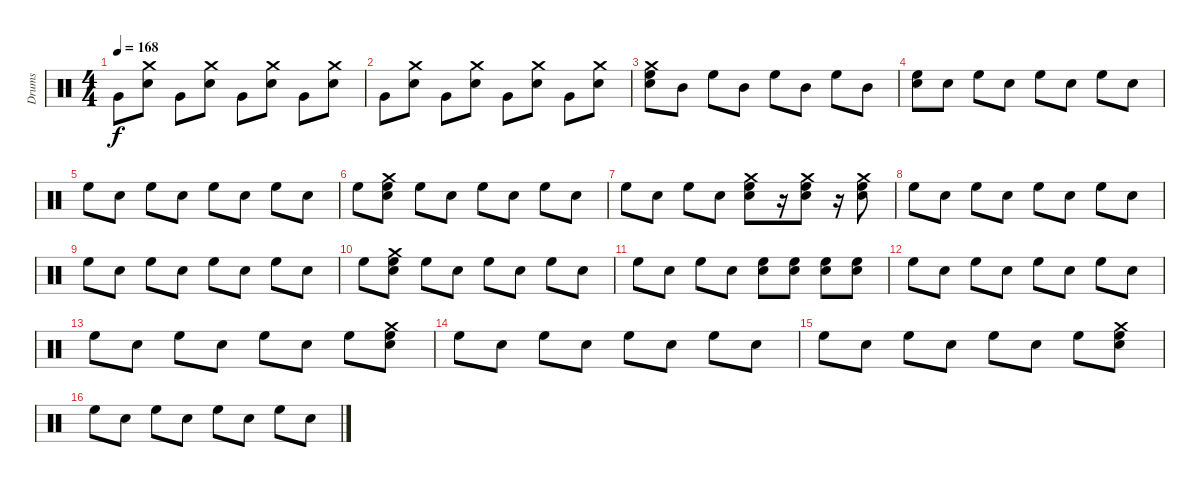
\track ("Drums" "Drums") {instrument percussion}
\staff {score}
\articulation defaults
\ts (4 4)
\tempo 168
\clef neutral
\ks c "Very Low Tom (hit)".8{dy f}
("Crash medium (hit)" "Electric Snare (hit)").8 "Very Low Tom (hit)".8 ("Crash medium (hit)" "Electric Snare (hit)").8 "Very Low Tom (hit)".8 ("Crash medium (hit)" "Electric Snare (hit)").8 "Very Low Tom (hit)".8 ("Crash medium (hit)" "Electric Snare (hit)").8 |
"Very Low Tom (hit)".8 ("Electric Snare (hit)" "Crash medium (hit)").8 "Very Low Tom (hit)".8 ("Electric Snare (hit)" "Crash medium (hit)").8 "Very Low Tom (hit)".8 ("Electric Snare (hit)" "Crash medium (hit)").8 "Very Low Tom (hit)".8 ("Electric Snare (hit)" "Crash medium (hit)").8 |
("Electric Snare (hit)" "Crash medium (hit)" "High Floor Tom (hit)").8 "Mid Tom (hit)".8 "High Floor Tom (hit)".8 "Mid Tom (hit)".8 "High Floor Tom (hit)".8 "Mid Tom (hit)".8 "High Floor Tom (hit)".8 "Mid Tom (hit)".8 |
("Electric Snare (hit)" "High Floor Tom (hit)").8 "Electric Snare (hit)".8 "High Floor Tom (hit)".8 "Electric Snare (hit)".8 "High Floor Tom (hit)".8 "Electric Snare (hit)".8 "High Floor Tom (hit)".8 "Electric Snare (hit)".8 |
"High Floor Tom (hit)".8 "Electric Snare (hit)".8 "High Floor Tom (hit)".8 "Electric Snare (hit)".8 "High Floor Tom (hit)".8 "Electric Snare (hit)".8 "High Floor Tom (hit)".8 "Electric Snare (hit)".8 |
"High Floor Tom (hit)".8 ("High Floor Tom (hit)" "Crash medium (hit)" "Electric Snare (hit)").8 "High Floor Tom (hit)".8 "Electric Snare (hit)".8 "High Floor Tom (hit)".8 "Electric Snare (hit)".8 "High Floor Tom (hit)".8 "Electric Snare (hit)".8 |
"High Floor Tom (hit)".8 "Electric Snare (hit)".8 "High Floor Tom (hit)".8 "Electric Snare (hit)".8 ("Electric Snare (hit)" "High Floor Tom (hit)" "Crash medium (hit)").8 r.16 ("Electric Snare (hit)" "High Floor Tom (hit)" "Crash medium (hit)").8 r.16 ("Electric Snare (hit)" "High Floor Tom (hit)" "Crash medium (hit)").8 |
"High Floor Tom (hit)".8 "Electric Snare (hit)".8 "High Floor Tom (hit)".8 "Electric Snare (hit)".8 "High Floor Tom (hit)".8 "Electric Snare (hit)".8 "High Floor Tom (hit)".8 "Electric Snare (hit)".8 |
"High Floor Tom (hit)".8 "Electric Snare (hit)".8 "High Floor Tom (hit)".8 "Electric Snare (hit)".8 "High Floor Tom (hit)".8 "Electric Snare (hit)".8 "High Floor Tom (hit)".8 "Electric Snare (hit)".8 |
"High Floor Tom (hit)".8 ("Electric Snare (hit)" "Crash medium (hit)" "High Floor Tom (hit)").8 "High Floor Tom (hit)".8 "Electric Snare (hit)".8 "High Floor Tom (hit)".8 "Electric Snare (hit)".8 "High Floor Tom (hit)".8 "Electric Snare (hit)".8 |
"High Floor Tom (hit)".8 "Electric Snare (hit)".8 "High Floor Tom (hit)".8 "Electric Snare (hit)".8 ("High Floor Tom (hit)" "Electric Snare (hit)").8 ("High Floor Tom (hit)" "Electric Snare (hit)").8 ("High Floor Tom (hit)" "Electric Snare (hit)").8 ("High Floor Tom (hit)" "Electric Snare (hit)").8 |
"High Floor Tom (hit)".8 "Electric Snare (hit)".8 "High Floor Tom (hit)".8 "Electric Snare (hit)".8 "High Floor Tom (hit)".8 "Electric Snare (hit)".8 "High Floor Tom (hit)".8 "Electric Snare (hit)".8 |
"High Floor Tom (hit)".8 "Electric Snare (hit)".8 "High Floor Tom (hit)".8 "Electric Snare (hit)".8 "High Floor Tom (hit)".8 "Electric Snare (hit)".8 "High Floor Tom (hit)".8 ("Electric Snare (hit)" "Crash medium (hit)" "High Floor Tom (hit)").8 |
"High Floor Tom (hit)".8 "Electric Snare (hit)".8 "High Floor Tom (hit)".8 "Electric Snare (hit)".8 "High Floor Tom (hit)".8 "Electric Snare (hit)".8 "High Floor Tom (hit)".8 "Electric Snare (hit)".8 |
"High Floor Tom (hit)".8 "Electric Snare (hit)".8 "High Floor Tom (hit)".8 "Electric Snare (hit)".8 "High Floor Tom (hit)".8 "Electric Snare (hit)".8 "High Floor Tom (hit)".8 ("Electric Snare (hit)" "Crash medium (hit)" "High Floor Tom (hit)").8 |
"High Floor Tom (hit)".8 "Electric Snare (hit)".8 "High Floor Tom (hit)".8 "Electric Snare (hit)".8 "High Floor Tom (hit)".8 "Electric Snare (hit)".8 "High Floor Tom (hit)".8 "Electric Snare (hit)".8
